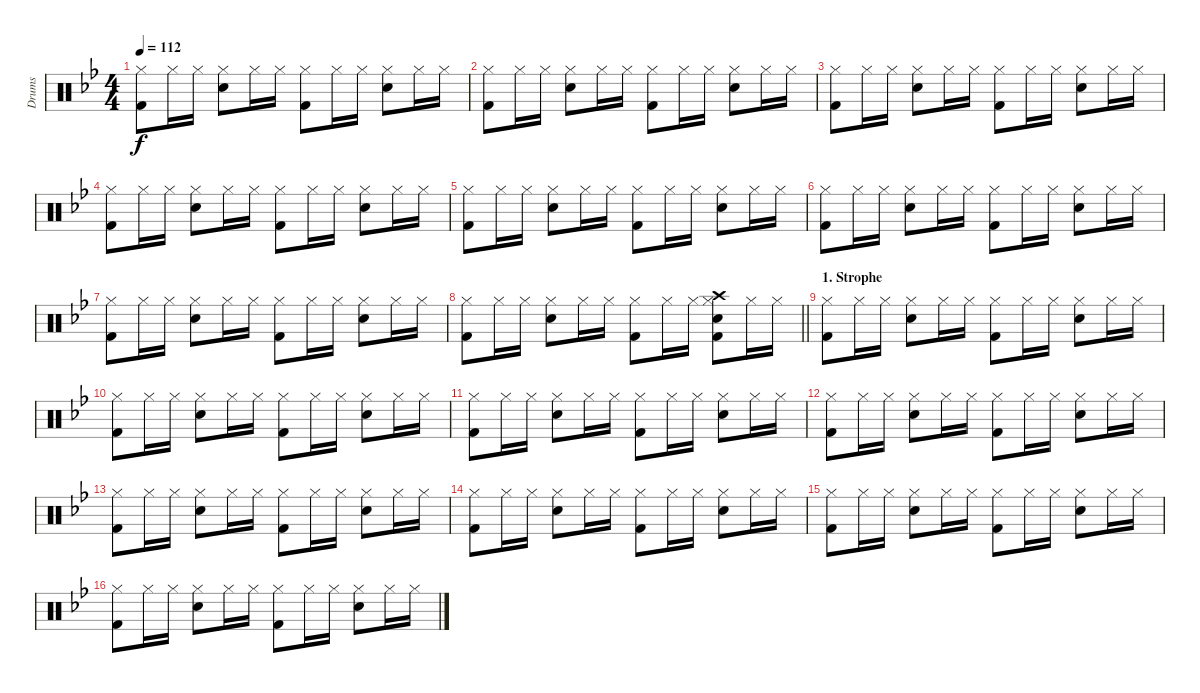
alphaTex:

\track ("Drums" "Drums") {instrument percussion}
\staff {score}
\articulation defaults
\ts (4 4)
\tempo 112
\clef neutral
\ks bb
("Hi-Hat (closed)" "Kick (hit) 2").8{dy f} "Hi-Hat (closed)".16 "Hi-Hat (closed)".16 ("Snare (hit) 2" "Hi-Hat (closed)").8 "Hi-Hat (closed)".16 "Hi-Hat (closed)".16 ("Hi-Hat (closed)" "Kick (hit) 2").8 "Hi-Hat (closed)".16 "Hi-Hat (closed)".16 ("Snare (hit) 2" "Hi-Hat (closed)").8 "Hi-Hat (closed)".16 "Hi-Hat (closed)".16 |
("Hi-Hat (closed)" "Kick (hit) 2").8 "Hi-Hat (closed)".16 "Hi-Hat (closed)".16 ("Snare (hit) 2" "Hi-Hat (closed)").8 "Hi-Hat (closed)".16 "Hi-Hat (closed)".16 ("Hi-Hat (closed)" "Kick (hit) 2").8 "Hi-Hat (closed)".16 "Hi-Hat (closed)".16 ("Snare (hit) 2" "Hi-Hat (closed)").8 "Hi-Hat (closed)".16 "Hi-Hat (closed)".16 |
("Hi-Hat (closed)" "Kick (hit) 2").8 "Hi-Hat (closed)".16 "Hi-Hat (closed)".16 ("Snare (hit) 2" "Hi-Hat (closed)").8 "Hi-Hat (closed)".16 "Hi-Hat (closed)".16 ("Hi-Hat (closed)" "Kick (hit) 2").8 "Hi-Hat (closed)".16 "Hi-Hat (closed)".16 ("Snare (hit) 2" "Hi-Hat (closed)").8 "Hi-Hat (closed)".16 "Hi-Hat (closed)".16 |
("Hi-Hat (closed)" "Kick (hit) 2").8 "Hi-Hat (closed)".16 "Hi-Hat (closed)".16 ("Snare (hit) 2" "Hi-Hat (closed)").8 "Hi-Hat (closed)".16 "Hi-Hat (closed)".16 ("Hi-Hat (closed)" "Kick (hit) 2").8 "Hi-Hat (closed)".16 "Hi-Hat (closed)".16 ("Snare (hit) 2" "Hi-Hat (closed)").8 "Hi-Hat (closed)".16 "Hi-Hat (closed)".16 |
("Hi-Hat (closed)" "Kick (hit) 2").8 "Hi-Hat (closed)".16 "Hi-Hat (closed)".16 ("Snare (hit) 2" "Hi-Hat (closed)").8 "Hi-Hat (closed)".16 "Hi-Hat (closed)".16 ("Hi-Hat (closed)" "Kick (hit) 2").8 "Hi-Hat (closed)".16 "Hi-Hat (closed)".16 ("Snare (hit) 2" "Hi-Hat (closed)").8 "Hi-Hat (closed)".16 "Hi-Hat (closed)".16 |
("Hi-Hat (closed)" "Kick (hit) 2").8 "Hi-Hat (closed)".16 "Hi-Hat (closed)".16 ("Snare (hit) 2" "Hi-Hat (closed)").8 "Hi-Hat (closed)".16 "Hi-Hat (closed)".16 ("Hi-Hat (closed)" "Kick (hit) 2").8 "Hi-Hat (closed)".16 "Hi-Hat (closed)".16 ("Snare (hit) 2" "Hi-Hat (closed)").8 "Hi-Hat (closed)".16 "Hi-Hat (closed)".16 |
("Hi-Hat (closed)" "Kick (hit) 2").8 "Hi-Hat (closed)".16 "Hi-Hat (closed)".16 ("Snare (hit) 2" "Hi-Hat (closed)").8 "Hi-Hat (closed)".16 "Hi-Hat (closed)".16 ("Hi-Hat (closed)" "Kick (hit) 2").8 "Hi-Hat (closed)".16 "Hi-Hat (closed)".16 ("Snare (hit) 2" "Hi-Hat (closed)").8 "Hi-Hat (closed)".16 "Hi-Hat (closed)".16 |
\barLineRight lightlight
("Hi-Hat (closed)" "Kick (hit) 2").8 "Hi-Hat (closed)".16 "Hi-Hat (closed)".16 ("Snare (hit) 2" "Hi-Hat (closed)").8 "Hi-Hat (closed)".16 "Hi-Hat (closed)".16 ("Hi-Hat (closed)" "Kick (hit) 2").8 "Hi-Hat (closed)".16 "Hi-Hat (closed)".16 ("Snare (hit) 2" "Hi-Hat (closed)" "Crash high (hit)" "Kick (hit) 2").8 "Hi-Hat (closed)".16 "Hi-Hat (closed)".16 |
\section ("" "1. Strophe")
("Hi-Hat (closed)" "Kick (hit) 2").8 "Hi-Hat (closed)".16 "Hi-Hat (closed)".16 ("Snare (hit) 2" "Hi-Hat (closed)").8 "Hi-Hat (closed)".16 "Hi-Hat (closed)".16 ("Hi-Hat (closed)" "Kick (hit) 2").8 "Hi-Hat (closed)".16 "Hi-Hat (closed)".16 ("Snare (hit) 2" "Hi-Hat (closed)").8 "Hi-Hat (closed)".16 "Hi-Hat (closed)".16 |
("Hi-Hat (closed)" "Kick (hit) 2").8 "Hi-Hat (closed)".16 "Hi-Hat (closed)".16 ("Snare (hit) 2" "Hi-Hat (closed)").8 "Hi-Hat (closed)".16 "Hi-Hat (closed)".16 ("Hi-Hat (closed)" "Kick (hit) 2").8 "Hi-Hat (closed)".16 "Hi-Hat (closed)".16 ("Snare (hit) 2" "Hi-Hat (closed)").8 "Hi-Hat (closed)".16 "Hi-Hat (closed)".16 |
("Hi-Hat (closed)" "Kick (hit) 2").8 "Hi-Hat (closed)".16 "Hi-Hat (closed)".16 ("Snare (hit) 2" "Hi-Hat (closed)").8 "Hi-Hat (closed)".16 "Hi-Hat (closed)".16 ("Hi-Hat (closed)" "Kick (hit) 2").8 "Hi-Hat (closed)".16 "Hi-Hat (closed)".16 ("Snare (hit) 2" "Hi-Hat (closed)").8 "Hi-Hat (closed)".16 "Hi-Hat (closed)".16 |
("Hi-Hat (closed)" "Kick (hit) 2").8 "Hi-Hat (closed)".16 "Hi-Hat (closed)".16 ("Snare (hit) 2" "Hi-Hat (closed)").8 "Hi-Hat (closed)".16 "Hi-Hat (closed)".16 ("Hi-Hat (closed)" "Kick (hit) 2").8 "Hi-Hat (closed)".16 "Hi-Hat (closed)".16 ("Snare (hit) 2" "Hi-Hat (closed)").8 "Hi-Hat (closed)".16 "Hi-Hat (closed)".16 |
("Hi-Hat (closed)" "Kick (hit) 2").8 "Hi-Hat (closed)".16 "Hi-Hat (closed)".16 ("Snare (hit) 2" "Hi-Hat (closed)").8 "Hi-Hat (closed)".16 "Hi-Hat (closed)".16 ("Hi-Hat (closed)" "Kick (hit) 2").8 "Hi-Hat (closed)".16 "Hi-Hat (closed)".16 ("Snare (hit) 2" "Hi-Hat (closed)").8 "Hi-Hat (closed)".16 "Hi-Hat (closed)".16 |
("Hi-Hat (closed)" "Kick (hit) 2").8 "Hi-Hat (closed)".16 "Hi-Hat (closed)".16 ("Snare (hit) 2" "Hi-Hat (closed)").8 "Hi-Hat (closed)".16 "Hi-Hat (closed)".16 ("Hi-Hat (closed)" "Kick (hit) 2").8 "Hi-Hat (closed)".16 "Hi-Hat (closed)".16 ("Snare (hit) 2" "Hi-Hat (closed)").8 "Hi-Hat (closed)".16 "Hi-Hat (closed)".16 |
("Hi-Hat (closed)" "Kick (hit) 2").8 "Hi-Hat (closed)".16 "Hi-Hat (closed)".16 ("Snare (hit) 2" "Hi-Hat (closed)").8 "Hi-Hat (closed)".16 "Hi-Hat (closed)".16 ("Hi-Hat (closed)" "Kick (hit) 2").8 "Hi-Hat (closed)".16 "Hi-Hat (closed)".16 ("Snare (hit) 2" "Hi-Hat (closed)").8 "Hi-Hat (closed)".16 "Hi-Hat (closed)".16 |
("Hi-Hat (closed)" "Kick (hit) 2").8 "Hi-Hat (closed)".16 "Hi-Hat (closed)".16 ("Snare (hit) 2" "Hi-Hat (closed)").8 "Hi-Hat (closed)".16 "Hi-Hat (closed)".16 ("Hi-Hat (closed)" "Kick (hit) 2").8 "Hi-Hat (closed)".16 "Hi-Hat (closed)".16 ("Snare (hit) 2" "Hi-Hat (closed)").8 "Hi-Hat (closed)".16 "Hi-Hat (closed)".16
